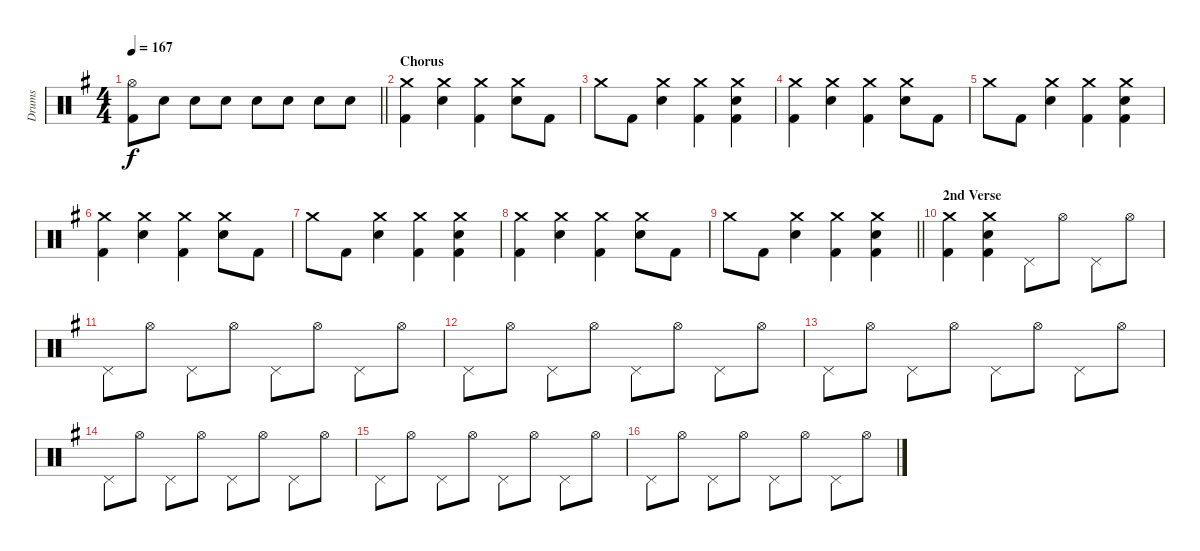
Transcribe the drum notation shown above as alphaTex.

\track ("Drums" "Drums") {instrument percussion}
\staff {score}
\articulation defaults
\ts (4 4)
\tempo 167
\clef neutral
\barLineRight lightlight
\ks eminor
("Hi-Hat (open)" "Kick (hit) 2").8{dy f} "Snare (hit) 2".8 "Snare (hit) 2".8 "Snare (hit) 2".8 "Snare (hit) 2".8 "Snare (hit) 2".8 "Snare (hit) 2".8 "Snare (hit) 2".8 |
\section ("" "Chorus")
("Crash medium (hit)" "Kick (hit) 2").4 ("Crash medium (hit)" "Snare (hit) 2").4 ("Crash medium (hit)" "Kick (hit) 2").4 ("Crash medium (hit)" "Snare (hit) 2").8 "Kick (hit) 2".8 |
"Crash medium (hit)".8 "Kick (hit) 2".8 ("Crash medium (hit)" "Snare (hit) 2").4 ("Crash medium (hit)" "Kick (hit) 2").4 ("Crash medium (hit)" "Snare (hit) 2" "Kick (hit) 2").4 |
("Crash medium (hit)" "Kick (hit) 2").4 ("Crash medium (hit)" "Snare (hit) 2").4 ("Crash medium (hit)" "Kick (hit) 2").4 ("Crash medium (hit)" "Snare (hit) 2").8 "Kick (hit) 2".8 |
"Crash medium (hit)".8 "Kick (hit) 2".8 ("Crash medium (hit)" "Snare (hit) 2").4 ("Crash medium (hit)" "Kick (hit) 2").4 ("Crash medium (hit)" "Snare (hit) 2" "Kick (hit) 2").4 |
("Crash medium (hit)" "Kick (hit) 2").4 ("Crash medium (hit)" "Snare (hit) 2").4 ("Crash medium (hit)" "Kick (hit) 2").4 ("Crash medium (hit)" "Snare (hit) 2").8 "Kick (hit) 2".8 |
"Crash medium (hit)".8 "Kick (hit) 2".8 ("Crash medium (hit)" "Snare (hit) 2").4 ("Crash medium (hit)" "Kick (hit) 2").4 ("Crash medium (hit)" "Snare (hit) 2" "Kick (hit) 2").4 |
("Crash medium (hit)" "Kick (hit) 2").4 ("Crash medium (hit)" "Snare (hit) 2").4 ("Crash medium (hit)" "Kick (hit) 2").4 ("Crash medium (hit)" "Snare (hit) 2").8 "Kick (hit) 2".8 |
\barLineRight lightlight "Crash medium (hit)".8 "Kick (hit) 2".8
("Crash medium (hit)" "Snare (hit) 2").4 ("Crash medium (hit)" "Kick (hit) 2").4 ("Crash medium (hit)" "Snare (hit) 2" "Kick (hit) 2").4 |
\section ("" "2nd Verse")
("Crash medium (hit)" "Kick (hit) 2").4 ("Crash medium (hit)" "Snare (hit) 2" "Kick (hit) 2").4 "Pedal Hi-Hat (hit)".8 "Hi-Hat (open)".8 "Pedal Hi-Hat (hit)".8 "Hi-Hat (open)".8 |
"Pedal Hi-Hat (hit)".8 "Hi-Hat (open)".8 "Pedal Hi-Hat (hit)".8 "Hi-Hat (open)".8 "Pedal Hi-Hat (hit)".8 "Hi-Hat (open)".8 "Pedal Hi-Hat (hit)".8 "Hi-Hat (open)".8 |
"Pedal Hi-Hat (hit)".8 "Hi-Hat (open)".8 "Pedal Hi-Hat (hit)".8 "Hi-Hat (open)".8 "Pedal Hi-Hat (hit)".8 "Hi-Hat (open)".8 "Pedal Hi-Hat (hit)".8 "Hi-Hat (open)".8 |
"Pedal Hi-Hat (hit)".8 "Hi-Hat (open)".8 "Pedal Hi-Hat (hit)".8 "Hi-Hat (open)".8 "Pedal Hi-Hat (hit)".8 "Hi-Hat (open)".8 "Pedal Hi-Hat (hit)".8 "Hi-Hat (open)".8 |
"Pedal Hi-Hat (hit)".8 "Hi-Hat (open)".8 "Pedal Hi-Hat (hit)".8 "Hi-Hat (open)".8 "Pedal Hi-Hat (hit)".8 "Hi-Hat (open)".8 "Pedal Hi-Hat (hit)".8 "Hi-Hat (open)".8 |
"Pedal Hi-Hat (hit)".8 "Hi-Hat (open)".8 "Pedal Hi-Hat (hit)".8 "Hi-Hat (open)".8 "Pedal Hi-Hat (hit)".8 "Hi-Hat (open)".8 "Pedal Hi-Hat (hit)".8 "Hi-Hat (open)".8 |
"Pedal Hi-Hat (hit)".8 "Hi-Hat (open)".8 "Pedal Hi-Hat (hit)".8 "Hi-Hat (open)".8 "Pedal Hi-Hat (hit)".8 "Hi-Hat (open)".8 "Pedal Hi-Hat (hit)".8 "Hi-Hat (open)".8
